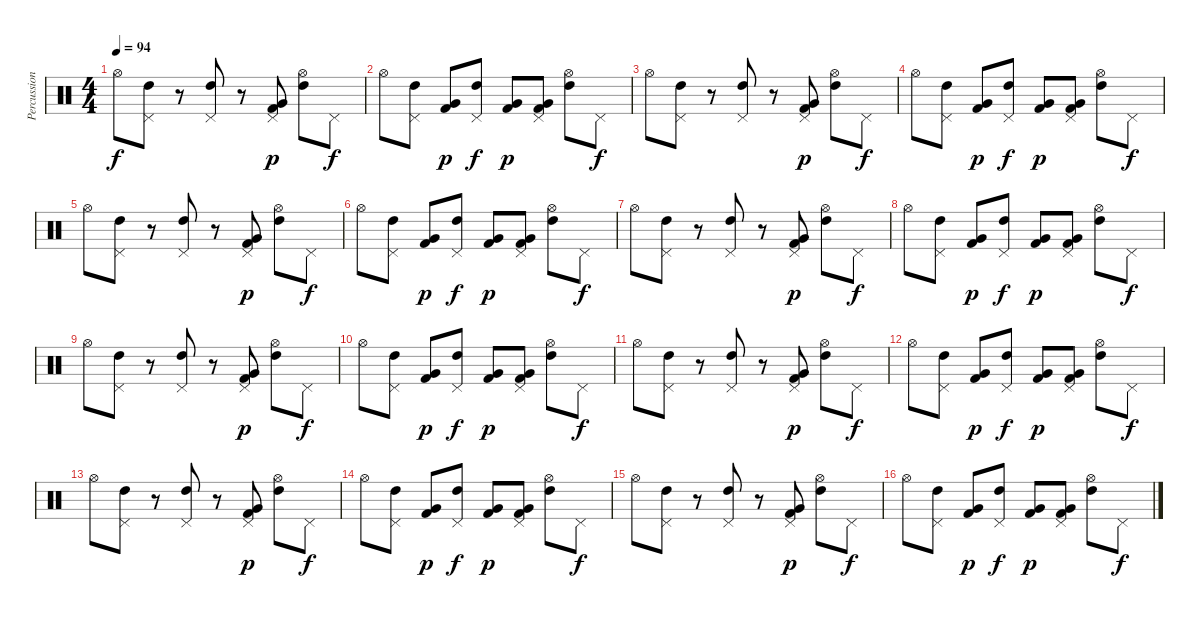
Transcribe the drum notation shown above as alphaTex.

\track ("Percussion" "Percussion") {instrument percussion}
\staff {score}
\articulation defaults
\ts (4 4)
\tempo 94
\clef neutral
\ks c "Hi-Hat (open)".8{dy f}
("Pedal Hi-Hat (hit)" "High Tom (hit)").8 r.8 ("Pedal Hi-Hat (hit)" "High Tom (hit)").8 r.8 ("Pedal Hi-Hat (hit)" "Very Low Tom (hit)" "Kick (hit) 2").8{dy p} ("Hi-Hat (open)" "High Tom (hit)").8 "Pedal Hi-Hat (hit)".8{dy f} |
"Hi-Hat (open)".8 ("Pedal Hi-Hat (hit)" "High Tom (hit)").8 ("Very Low Tom (hit)" "Kick (hit) 2").8{dy p} ("Pedal Hi-Hat (hit)" "High Tom (hit)").8{dy f} ("Very Low Tom (hit)" "Kick (hit) 2").8{dy p} ("Pedal Hi-Hat (hit)" "Very Low Tom (hit)" "Kick (hit) 2").8 ("Hi-Hat (open)" "High Tom (hit)").8 "Pedal Hi-Hat (hit)".8{dy f} |
"Hi-Hat (open)".8 ("Pedal Hi-Hat (hit)" "High Tom (hit)").8 r.8 ("Pedal Hi-Hat (hit)" "High Tom (hit)").8 r.8 ("Pedal Hi-Hat (hit)" "Very Low Tom (hit)" "Kick (hit) 2").8{dy p} ("Hi-Hat (open)" "High Tom (hit)").8 "Pedal Hi-Hat (hit)".8{dy f} |
"Hi-Hat (open)".8 ("Pedal Hi-Hat (hit)" "High Tom (hit)").8 ("Very Low Tom (hit)" "Kick (hit) 2").8{dy p} ("Pedal Hi-Hat (hit)" "High Tom (hit)").8{dy f} ("Very Low Tom (hit)" "Kick (hit) 2").8{dy p} ("Pedal Hi-Hat (hit)" "Very Low Tom (hit)" "Kick (hit) 2").8 ("Hi-Hat (open)" "High Tom (hit)").8 "Pedal Hi-Hat (hit)".8{dy f} |
"Hi-Hat (open)".8 ("Pedal Hi-Hat (hit)" "High Tom (hit)").8 r.8 ("Pedal Hi-Hat (hit)" "High Tom (hit)").8 r.8 ("Pedal Hi-Hat (hit)" "Very Low Tom (hit)" "Kick (hit) 2").8{dy p} ("Hi-Hat (open)" "High Tom (hit)").8 "Pedal Hi-Hat (hit)".8{dy f} |
"Hi-Hat (open)".8 ("Pedal Hi-Hat (hit)" "High Tom (hit)").8 ("Very Low Tom (hit)" "Kick (hit) 2").8{dy p} ("Pedal Hi-Hat (hit)" "High Tom (hit)").8{dy f} ("Very Low Tom (hit)" "Kick (hit) 2").8{dy p} ("Pedal Hi-Hat (hit)" "Very Low Tom (hit)" "Kick (hit) 2").8 ("Hi-Hat (open)" "High Tom (hit)").8 "Pedal Hi-Hat (hit)".8{dy f} |
"Hi-Hat (open)".8 ("Pedal Hi-Hat (hit)" "High Tom (hit)").8 r.8 ("Pedal Hi-Hat (hit)" "High Tom (hit)").8 r.8 ("Pedal Hi-Hat (hit)" "Very Low Tom (hit)" "Kick (hit) 2").8{dy p} ("Hi-Hat (open)" "High Tom (hit)").8 "Pedal Hi-Hat (hit)".8{dy f} |
"Hi-Hat (open)".8 ("Pedal Hi-Hat (hit)" "High Tom (hit)").8 ("Very Low Tom (hit)" "Kick (hit) 2").8{dy p} ("Pedal Hi-Hat (hit)" "High Tom (hit)").8{dy f} ("Very Low Tom (hit)" "Kick (hit) 2").8{dy p} ("Pedal Hi-Hat (hit)" "Very Low Tom (hit)" "Kick (hit) 2").8 ("Hi-Hat (open)" "High Tom (hit)").8 "Pedal Hi-Hat (hit)".8{dy f} |
"Hi-Hat (open)".8 ("Pedal Hi-Hat (hit)" "High Tom (hit)").8 r.8 ("Pedal Hi-Hat (hit)" "High Tom (hit)").8 r.8 ("Pedal Hi-Hat (hit)" "Very Low Tom (hit)" "Kick (hit) 2").8{dy p} ("Hi-Hat (open)" "High Tom (hit)").8 "Pedal Hi-Hat (hit)".8{dy f} |
"Hi-Hat (open)".8 ("Pedal Hi-Hat (hit)" "High Tom (hit)").8 ("Very Low Tom (hit)" "Kick (hit) 2").8{dy p} ("Pedal Hi-Hat (hit)" "High Tom (hit)").8{dy f} ("Very Low Tom (hit)" "Kick (hit) 2").8{dy p} ("Pedal Hi-Hat (hit)" "Very Low Tom (hit)" "Kick (hit) 2").8 ("Hi-Hat (open)" "High Tom (hit)").8 "Pedal Hi-Hat (hit)".8{dy f} |
"Hi-Hat (open)".8 ("Pedal Hi-Hat (hit)" "High Tom (hit)").8 r.8 ("Pedal Hi-Hat (hit)" "High Tom (hit)").8 r.8 ("Pedal Hi-Hat (hit)" "Very Low Tom (hit)" "Kick (hit) 2").8{dy p} ("Hi-Hat (open)" "High Tom (hit)").8 "Pedal Hi-Hat (hit)".8{dy f} |
"Hi-Hat (open)".8 ("Pedal Hi-Hat (hit)" "High Tom (hit)").8 ("Very Low Tom (hit)" "Kick (hit) 2").8{dy p} ("Pedal Hi-Hat (hit)" "High Tom (hit)").8{dy f} ("Very Low Tom (hit)" "Kick (hit) 2").8{dy p} ("Pedal Hi-Hat (hit)" "Very Low Tom (hit)" "Kick (hit) 2").8 ("Hi-Hat (open)" "High Tom (hit)").8 "Pedal Hi-Hat (hit)".8{dy f} |
"Hi-Hat (open)".8 ("Pedal Hi-Hat (hit)" "High Tom (hit)").8 r.8 ("Pedal Hi-Hat (hit)" "High Tom (hit)").8 r.8 ("Pedal Hi-Hat (hit)" "Very Low Tom (hit)" "Kick (hit) 2").8{dy p} ("Hi-Hat (open)" "High Tom (hit)").8 "Pedal Hi-Hat (hit)".8{dy f} |
"Hi-Hat (open)".8 ("Pedal Hi-Hat (hit)" "High Tom (hit)").8 ("Very Low Tom (hit)" "Kick (hit) 2").8{dy p} ("Pedal Hi-Hat (hit)" "High Tom (hit)").8{dy f} ("Very Low Tom (hit)" "Kick (hit) 2").8{dy p} ("Pedal Hi-Hat (hit)" "Very Low Tom (hit)" "Kick (hit) 2").8 ("Hi-Hat (open)" "High Tom (hit)").8 "Pedal Hi-Hat (hit)".8{dy f} |
"Hi-Hat (open)".8 ("Pedal Hi-Hat (hit)" "High Tom (hit)").8 r.8 ("Pedal Hi-Hat (hit)" "High Tom (hit)").8 r.8 ("Pedal Hi-Hat (hit)" "Very Low Tom (hit)" "Kick (hit) 2").8{dy p} ("Hi-Hat (open)" "High Tom (hit)").8 "Pedal Hi-Hat (hit)".8{dy f} |
"Hi-Hat (open)".8 ("Pedal Hi-Hat (hit)" "High Tom (hit)").8 ("Very Low Tom (hit)" "Kick (hit) 2").8{dy p} ("Pedal Hi-Hat (hit)" "High Tom (hit)").8{dy f} ("Very Low Tom (hit)" "Kick (hit) 2").8{dy p} ("Pedal Hi-Hat (hit)" "Very Low Tom (hit)" "Kick (hit) 2").8 ("Hi-Hat (open)" "High Tom (hit)").8 "Pedal Hi-Hat (hit)".8{dy f}
